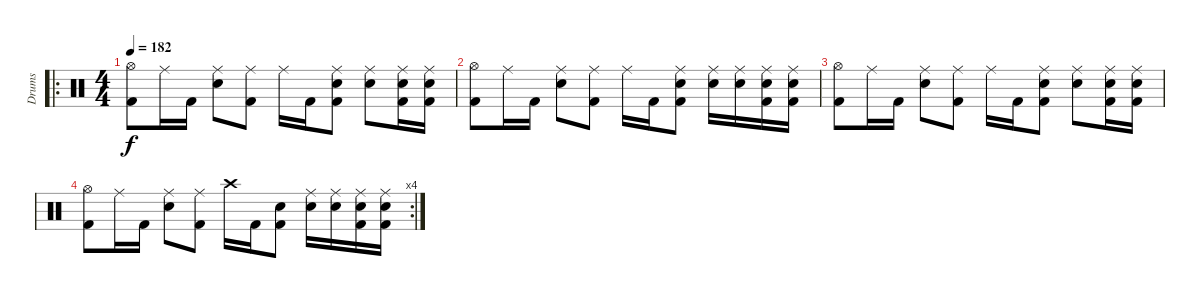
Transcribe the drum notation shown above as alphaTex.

\track ("Drums" "Drums") {instrument percussion}
\staff {score}
\articulation defaults
\ro
\ts (4 4)
\tempo 182
\clef neutral
\ks c
("Hi-Hat (open)" "Kick (hit) 2").8{dy f} "Ride (middle)".16 "Kick (hit) 2".16 ("Ride (middle)" "Electric Snare (hit)").8 ("Ride (middle)" "Kick (hit) 2").8 "Ride (middle)".16 "Kick (hit) 2".16 ("Ride (middle)" "Electric Snare (hit)" "Kick (hit) 2").8 ("Ride (middle)" "Electric Snare (hit)").8 ("Ride (middle)" "Electric Snare (hit)" "Kick (hit) 2").16 ("Ride (middle)" "Electric Snare (hit)" "Kick (hit) 2").16 |
("Hi-Hat (open)" "Kick (hit) 2").8 "Ride (middle)".16 "Kick (hit) 2".16 ("Ride (middle)" "Electric Snare (hit)").8 ("Ride (middle)" "Kick (hit) 2").8 "Ride (middle)".16 "Kick (hit) 2".16 ("Ride (middle)" "Electric Snare (hit)" "Kick (hit) 2").8 ("Ride (middle)" "Electric Snare (hit)").16 ("Ride (middle)" "Electric Snare (hit)").16 ("Ride (middle)" "Electric Snare (hit)" "Kick (hit) 2").16 ("Ride (middle)" "Electric Snare (hit)" "Kick (hit) 2").16 |
("Hi-Hat (open)" "Kick (hit) 2").8 "Ride (middle)".16 "Kick (hit) 2".16 ("Ride (middle)" "Electric Snare (hit)").8 ("Ride (middle)" "Kick (hit) 2").8 "Ride (middle)".16 "Kick (hit) 2".16 ("Ride (middle)" "Electric Snare (hit)" "Kick (hit) 2").8 ("Ride (middle)" "Electric Snare (hit)").8 ("Ride (middle)" "Electric Snare (hit)" "Kick (hit) 2").16 ("Ride (middle)" "Electric Snare (hit)" "Kick (hit) 2").16 |
\rc 4
("Hi-Hat (open)" "Kick (hit) 2").8 "Ride (middle)".16 "Kick (hit) 2".16 ("Ride (middle)" "Electric Snare (hit)").8 ("Ride (middle)" "Kick (hit) 2").8 "Crash high (hit)".16 "Kick (hit) 2".16 ("Electric Snare (hit)" "Kick (hit) 2").8 ("Ride (middle)" "Electric Snare (hit)").16 ("Ride (middle)" "Electric Snare (hit)").16 ("Ride (middle)" "Electric Snare (hit)" "Kick (hit) 2").16 ("Ride (middle)" "Electric Snare (hit)" "Kick (hit) 2").16
